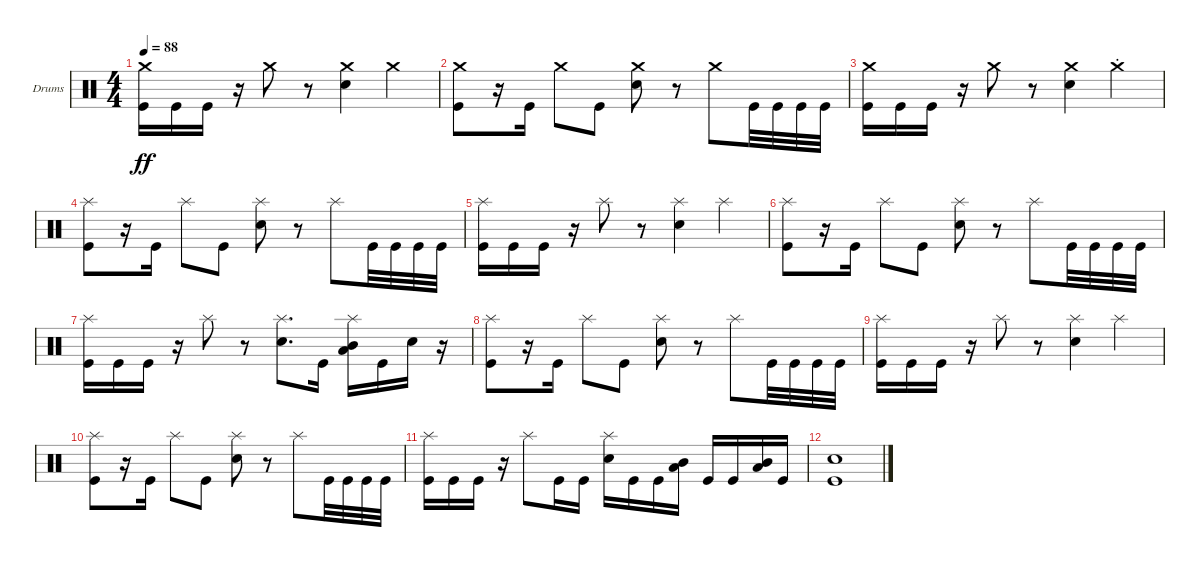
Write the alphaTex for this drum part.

\defaultSystemsLayout 4
\bracketExtendMode groupsimilarinstruments
\firstSystemTrackNameOrientation horizontal
\otherSystemsTrackNameOrientation horizontal
\track ("Drumkit" "Drums") {instrument percussion}
\staff {score}
\articulation defaults
\ts (4 4)
\tempo 88
\clef neutral
\ks c
("Kick (hit)" "Crash medium (hit)").16{dy ff} "Kick (hit)".16 "Kick (hit)".16 r.16 "Crash medium (hit)".8 r.8 ("Snare (hit) 2" "Crash medium (hit)").4 "Crash medium (hit)".4 |
("Kick (hit)" "Crash medium (hit)").8 r.16 "Kick (hit)".16 "Crash medium (hit)".8 "Kick (hit)".8 ("Snare (hit) 2" "Crash medium (hit)").8 r.8 "Crash medium (hit)".8 "Kick (hit)".32 "Kick (hit)".32 "Kick (hit)".32 "Kick (hit)".32 |
("Kick (hit)" "Crash medium (hit)").16 "Kick (hit)".16 "Kick (hit)".16 r.16 "Crash medium (hit)".8 r.8 ("Snare (hit) 2" "Crash medium (hit)").4 "Crash medium (hit)"{st}.4 |
("Kick (hit)" "Splash (hit)").8 r.16 "Kick (hit)".16 "Splash (hit)".8 "Kick (hit)".8 ("Snare (hit) 2" "Splash (hit)").8 r.8 "Splash (hit)".8 "Kick (hit)".32 "Kick (hit)".32 "Kick (hit)".32 "Kick (hit)".32 |
("Kick (hit)" "Splash (hit)").16 "Kick (hit)".16 "Kick (hit)".16 r.16 "Splash (hit)".8 r.8 ("Snare (hit) 2" "Splash (hit)").4 "Splash (hit)".4 |
("Kick (hit)" "Splash (hit)").8 r.16 "Kick (hit)".16 "Splash (hit)".8 "Kick (hit)".8 ("Snare (hit) 2" "Splash (hit)").8 r.8 "Splash (hit)".8 "Kick (hit)".32 "Kick (hit)".32 "Kick (hit)".32 "Kick (hit)".32 |
("Kick (hit)" "Splash (hit)").16 "Kick (hit)".16 "Kick (hit)".16 r.16 "Splash (hit)".8 r.8 ("Snare (hit) 2" "Splash (hit)").8{d} "Kick (hit)".16 ("Mid Tom (hit)" "Low Tom (hit)" "Splash (hit)").16 "Kick (hit)".16 "Snare (hit) 2".16 r.16 |
("Kick (hit)" "Splash (hit)").8 r.16 "Kick (hit)".16 "Splash (hit)".8 "Kick (hit)".8 ("Snare (hit) 2" "Splash (hit)").8 r.8 "Splash (hit)".8 "Kick (hit)".32 "Kick (hit)".32 "Kick (hit)".32 "Kick (hit)".32 |
("Kick (hit)" "Splash (hit)").16 "Kick (hit)".16 "Kick (hit)".16 r.16 "Splash (hit)".8 r.8 ("Snare (hit) 2" "Splash (hit)").4 "Splash (hit)".4 |
("Kick (hit)" "Splash (hit)").8 r.16 "Kick (hit)".16 "Splash (hit)".8 "Kick (hit)".8 ("Snare (hit) 2" "Splash (hit)").8 r.8 "Splash (hit)".8 "Kick (hit)".32 "Kick (hit)".32 "Kick (hit)".32 "Kick (hit)".32 |
("Kick (hit)" "Splash (hit)").16 "Kick (hit)".16 "Kick (hit)".16 r.16 "Splash (hit)".8 "Kick (hit)".16 "Kick (hit)".16 ("Snare (hit) 2" "Splash (hit)").16 "Kick (hit)".16 "Kick (hit)".16 ("Low Tom (hit)" "Mid Tom (hit)").16 "Kick (hit)".16 "Kick (hit)".16 ("Mid Tom (hit)" "Low Tom (hit)").16 "Kick (hit)".16 |
("Kick (hit)" "Snare (hit) 2").1
